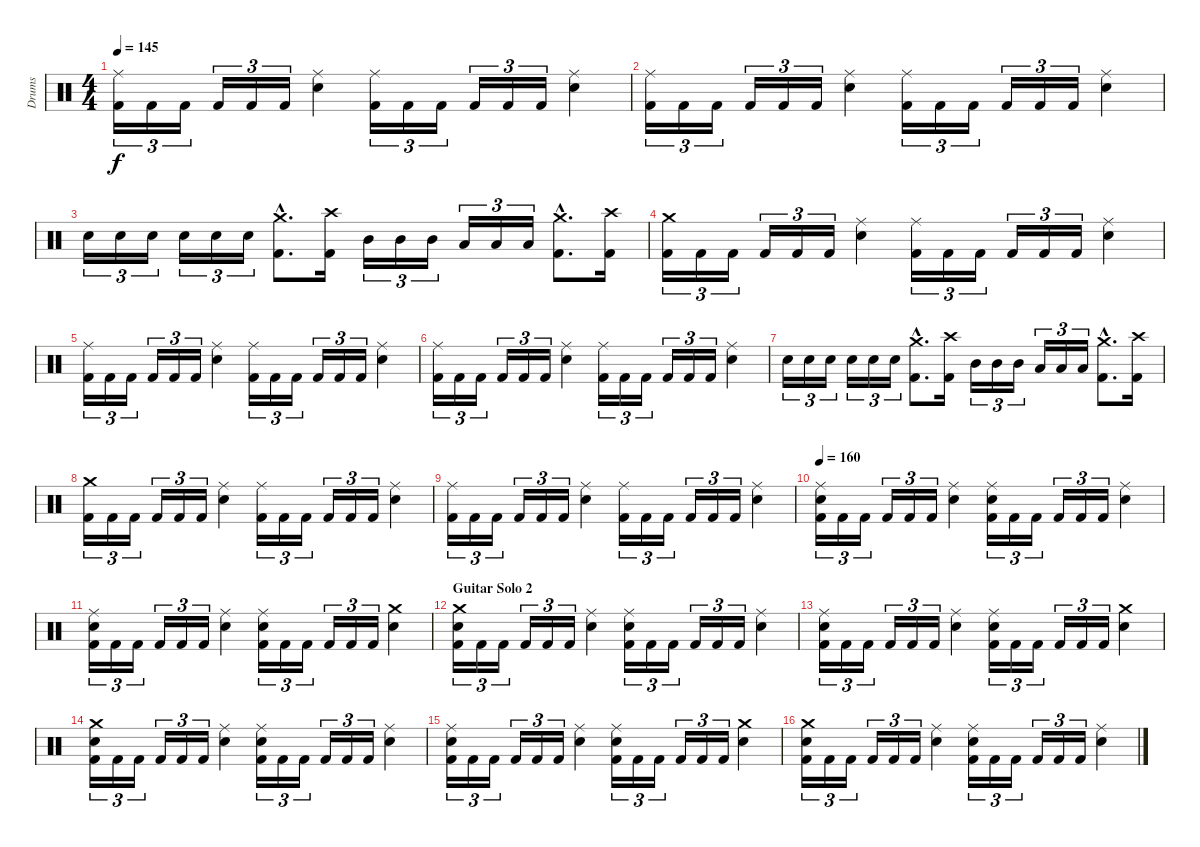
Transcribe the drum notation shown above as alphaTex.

\track ("Drums" "Drums") {instrument percussion}
\staff {score}
\articulation defaults
\ts (4 4)
\tempo 145
\clef neutral
\ks c
("Ride (middle)" "Kick (hit) 2").16{tu (3 2) dy f} "Kick (hit) 2".16{tu (3 2)} "Kick (hit) 2".16{tu (3 2)} "Kick (hit) 2".16{tu (3 2)} "Kick (hit) 2".16{tu (3 2)} "Kick (hit) 2".16{tu (3 2)} ("Ride (middle)" "Electric Snare (hit)").4 ("Ride (middle)" "Kick (hit) 2").16{tu (3 2)} "Kick (hit) 2".16{tu (3 2)} "Kick (hit) 2".16{tu (3 2)} "Kick (hit) 2".16{tu (3 2)} "Kick (hit) 2".16{tu (3 2)} "Kick (hit) 2".16{tu (3 2)} ("Ride (middle)" "Electric Snare (hit)").4 |
("Ride (middle)" "Kick (hit) 2").16{tu (3 2)} "Kick (hit) 2".16{tu (3 2)} "Kick (hit) 2".16{tu (3 2)} "Kick (hit) 2".16{tu (3 2)} "Kick (hit) 2".16{tu (3 2)} "Kick (hit) 2".16{tu (3 2)} ("Ride (middle)" "Electric Snare (hit)").4 ("Ride (middle)" "Kick (hit) 2").16{tu (3 2)} "Kick (hit) 2".16{tu (3 2)} "Kick (hit) 2".16{tu (3 2)} "Kick (hit) 2".16{tu (3 2)} "Kick (hit) 2".16{tu (3 2)} "Kick (hit) 2".16{tu (3 2)} ("Ride (middle)" "Electric Snare (hit)").4 |
"Electric Snare (hit)".16{tu (3 2)} "Electric Snare (hit)".16{tu (3 2)} "Electric Snare (hit)".16{tu (3 2)} "Electric Snare (hit)".16{tu (3 2)} "Electric Snare (hit)".16{tu (3 2)} "Electric Snare (hit)".16{tu (3 2)} ("Crash medium (hit)"{hac} "Kick (hit) 2"{hac}).8{d} ("Crash high (hit)" "Kick (hit) 2").16 "Mid Tom (hit)".16{tu (3 2)} "Mid Tom (hit)".16{tu (3 2)} "Mid Tom (hit)".16{tu (3 2)} "Low Tom (hit)".16{tu (3 2)} "Low Tom (hit)".16{tu (3 2)} "Low Tom (hit)".16{tu (3 2)} ("Crash medium (hit)"{hac} "Kick (hit) 2"{hac}).8{d} ("Crash high (hit)" "Kick (hit) 2").16 |
("Crash medium (hit)" "Kick (hit) 2").16{tu (3 2)} "Kick (hit) 2".16{tu (3 2)} "Kick (hit) 2".16{tu (3 2)} "Kick (hit) 2".16{tu (3 2)} "Kick (hit) 2".16{tu (3 2)} "Kick (hit) 2".16{tu (3 2)} ("Ride (middle)" "Electric Snare (hit)").4 ("Ride (middle)" "Kick (hit) 2").16{tu (3 2)} "Kick (hit) 2".16{tu (3 2)} "Kick (hit) 2".16{tu (3 2)} "Kick (hit) 2".16{tu (3 2)} "Kick (hit) 2".16{tu (3 2)} "Kick (hit) 2".16{tu (3 2)} ("Ride (middle)" "Electric Snare (hit)").4 |
("Ride (middle)" "Kick (hit) 2").16{tu (3 2)} "Kick (hit) 2".16{tu (3 2)} "Kick (hit) 2".16{tu (3 2)} "Kick (hit) 2".16{tu (3 2)} "Kick (hit) 2".16{tu (3 2)} "Kick (hit) 2".16{tu (3 2)} ("Ride (middle)" "Electric Snare (hit)").4 ("Ride (middle)" "Kick (hit) 2").16{tu (3 2)} "Kick (hit) 2".16{tu (3 2)} "Kick (hit) 2".16{tu (3 2)} "Kick (hit) 2".16{tu (3 2)} "Kick (hit) 2".16{tu (3 2)} "Kick (hit) 2".16{tu (3 2)} ("Ride (middle)" "Electric Snare (hit)").4 |
("Ride (middle)" "Kick (hit) 2").16{tu (3 2)} "Kick (hit) 2".16{tu (3 2)} "Kick (hit) 2".16{tu (3 2)} "Kick (hit) 2".16{tu (3 2)} "Kick (hit) 2".16{tu (3 2)} "Kick (hit) 2".16{tu (3 2)} ("Ride (middle)" "Electric Snare (hit)").4 ("Ride (middle)" "Kick (hit) 2").16{tu (3 2)} "Kick (hit) 2".16{tu (3 2)} "Kick (hit) 2".16{tu (3 2)} "Kick (hit) 2".16{tu (3 2)} "Kick (hit) 2".16{tu (3 2)} "Kick (hit) 2".16{tu (3 2)} ("Ride (middle)" "Electric Snare (hit)").4 |
"Electric Snare (hit)".16{tu (3 2)} "Electric Snare (hit)".16{tu (3 2)} "Electric Snare (hit)".16{tu (3 2)} "Electric Snare (hit)".16{tu (3 2)} "Electric Snare (hit)".16{tu (3 2)} "Electric Snare (hit)".16{tu (3 2)} ("Crash medium (hit)"{hac} "Kick (hit) 2"{hac}).8{d} ("Crash high (hit)" "Kick (hit) 2").16 "Mid Tom (hit)".16{tu (3 2)} "Mid Tom (hit)".16{tu (3 2)} "Mid Tom (hit)".16{tu (3 2)} "Low Tom (hit)".16{tu (3 2)} "Low Tom (hit)".16{tu (3 2)} "Low Tom (hit)".16{tu (3 2)} ("Crash medium (hit)"{hac} "Kick (hit) 2"{hac}).8{d} ("Crash high (hit)" "Kick (hit) 2").16 |
\section ("" "")
("Crash medium (hit)" "Kick (hit) 2").16{tu (3 2)} "Kick (hit) 2".16{tu (3 2)} "Kick (hit) 2".16{tu (3 2)} "Kick (hit) 2".16{tu (3 2)} "Kick (hit) 2".16{tu (3 2)} "Kick (hit) 2".16{tu (3 2)} ("Ride (middle)" "Electric Snare (hit)").4 ("Ride (middle)" "Kick (hit) 2").16{tu (3 2)} "Kick (hit) 2".16{tu (3 2)} "Kick (hit) 2".16{tu (3 2)} "Kick (hit) 2".16{tu (3 2)} "Kick (hit) 2".16{tu (3 2)} "Kick (hit) 2".16{tu (3 2)} ("Ride (middle)" "Electric Snare (hit)").4 |
("Ride (middle)" "Kick (hit) 2").16{tu (3 2)} "Kick (hit) 2".16{tu (3 2)} "Kick (hit) 2".16{tu (3 2)} "Kick (hit) 2".16{tu (3 2)} "Kick (hit) 2".16{tu (3 2)} "Kick (hit) 2".16{tu (3 2)} ("Ride (middle)" "Electric Snare (hit)").4 ("Ride (middle)" "Kick (hit) 2").16{tu (3 2)} "Kick (hit) 2".16{tu (3 2)} "Kick (hit) 2".16{tu (3 2)} "Kick (hit) 2".16{tu (3 2)} "Kick (hit) 2".16{tu (3 2)} "Kick (hit) 2".16{tu (3 2)} ("Ride (middle)" "Electric Snare (hit)").4 |
\section ("" "")
\tempo 160
("Ride (middle)" "Electric Snare (hit)" "Kick (hit) 2").16{tu (3 2)} "Kick (hit) 2".16{tu (3 2)} "Kick (hit) 2".16{tu (3 2)} "Kick (hit) 2".16{tu (3 2)} "Kick (hit) 2".16{tu (3 2)} "Kick (hit) 2".16{tu (3 2)} ("Ride (middle)" "Electric Snare (hit)").4 ("Ride (middle)" "Electric Snare (hit)" "Kick (hit) 2").16{tu (3 2)} "Kick (hit) 2".16{tu (3 2)} "Kick (hit) 2".16{tu (3 2)} "Kick (hit) 2".16{tu (3 2)} "Kick (hit) 2".16{tu (3 2)} "Kick (hit) 2".16{tu (3 2)} ("Ride (middle)" "Electric Snare (hit)").4 |
("Ride (middle)" "Electric Snare (hit)" "Kick (hit) 2").16{tu (3 2)} "Kick (hit) 2".16{tu (3 2)} "Kick (hit) 2".16{tu (3 2)} "Kick (hit) 2".16{tu (3 2)} "Kick (hit) 2".16{tu (3 2)} "Kick (hit) 2".16{tu (3 2)} ("Ride (middle)" "Electric Snare (hit)").4 ("Ride (middle)" "Electric Snare (hit)" "Kick (hit) 2").16{tu (3 2)} "Kick (hit) 2".16{tu (3 2)} "Kick (hit) 2".16{tu (3 2)} "Kick (hit) 2".16{tu (3 2)} "Kick (hit) 2".16{tu (3 2)} "Kick (hit) 2".16{tu (3 2)} ("Crash medium (hit)" "Electric Snare (hit)").4 |
\section ("" "Guitar Solo 2")
("Crash medium (hit)" "Electric Snare (hit)" "Kick (hit) 2").16{tu (3 2)} "Kick (hit) 2".16{tu (3 2)} "Kick (hit) 2".16{tu (3 2)} "Kick (hit) 2".16{tu (3 2)} "Kick (hit) 2".16{tu (3 2)} "Kick (hit) 2".16{tu (3 2)} ("Ride (middle)" "Electric Snare (hit)").4 ("Ride (middle)" "Electric Snare (hit)" "Kick (hit) 2").16{tu (3 2)} "Kick (hit) 2".16{tu (3 2)} "Kick (hit) 2".16{tu (3 2)} "Kick (hit) 2".16{tu (3 2)} "Kick (hit) 2".16{tu (3 2)} "Kick (hit) 2".16{tu (3 2)} ("Ride (middle)" "Electric Snare (hit)").4 |
("Ride (middle)" "Electric Snare (hit)" "Kick (hit) 2").16{tu (3 2)} "Kick (hit) 2".16{tu (3 2)} "Kick (hit) 2".16{tu (3 2)} "Kick (hit) 2".16{tu (3 2)} "Kick (hit) 2".16{tu (3 2)} "Kick (hit) 2".16{tu (3 2)} ("Ride (middle)" "Electric Snare (hit)").4 ("Ride (middle)" "Electric Snare (hit)" "Kick (hit) 2").16{tu (3 2)} "Kick (hit) 2".16{tu (3 2)} "Kick (hit) 2".16{tu (3 2)} "Kick (hit) 2".16{tu (3 2)} "Kick (hit) 2".16{tu (3 2)} "Kick (hit) 2".16{tu (3 2)} ("Crash medium (hit)" "Electric Snare (hit)").4 |
("Crash medium (hit)" "Electric Snare (hit)" "Kick (hit) 2").16{tu (3 2)} "Kick (hit) 2".16{tu (3 2)} "Kick (hit) 2".16{tu (3 2)} "Kick (hit) 2".16{tu (3 2)} "Kick (hit) 2".16{tu (3 2)} "Kick (hit) 2".16{tu (3 2)} ("Ride (middle)" "Electric Snare (hit)").4 ("Ride (middle)" "Electric Snare (hit)" "Kick (hit) 2").16{tu (3 2)} "Kick (hit) 2".16{tu (3 2)} "Kick (hit) 2".16{tu (3 2)} "Kick (hit) 2".16{tu (3 2)} "Kick (hit) 2".16{tu (3 2)} "Kick (hit) 2".16{tu (3 2)} ("Ride (middle)" "Electric Snare (hit)").4 |
("Ride (middle)" "Electric Snare (hit)" "Kick (hit) 2").16{tu (3 2)} "Kick (hit) 2".16{tu (3 2)} "Kick (hit) 2".16{tu (3 2)} "Kick (hit) 2".16{tu (3 2)} "Kick (hit) 2".16{tu (3 2)} "Kick (hit) 2".16{tu (3 2)} ("Ride (middle)" "Electric Snare (hit)").4 ("Ride (middle)" "Electric Snare (hit)" "Kick (hit) 2").16{tu (3 2)} "Kick (hit) 2".16{tu (3 2)} "Kick (hit) 2".16{tu (3 2)} "Kick (hit) 2".16{tu (3 2)} "Kick (hit) 2".16{tu (3 2)} "Kick (hit) 2".16{tu (3 2)} ("Crash medium (hit)" "Electric Snare (hit)").4 |
("Crash medium (hit)" "Electric Snare (hit)" "Kick (hit) 2").16{tu (3 2)} "Kick (hit) 2".16{tu (3 2)} "Kick (hit) 2".16{tu (3 2)} "Kick (hit) 2".16{tu (3 2)} "Kick (hit) 2".16{tu (3 2)} "Kick (hit) 2".16{tu (3 2)} ("Ride (middle)" "Electric Snare (hit)").4 ("Ride (middle)" "Electric Snare (hit)" "Kick (hit) 2").16{tu (3 2)} "Kick (hit) 2".16{tu (3 2)} "Kick (hit) 2".16{tu (3 2)} "Kick (hit) 2".16{tu (3 2)} "Kick (hit) 2".16{tu (3 2)} "Kick (hit) 2".16{tu (3 2)} ("Ride (middle)" "Electric Snare (hit)").4
